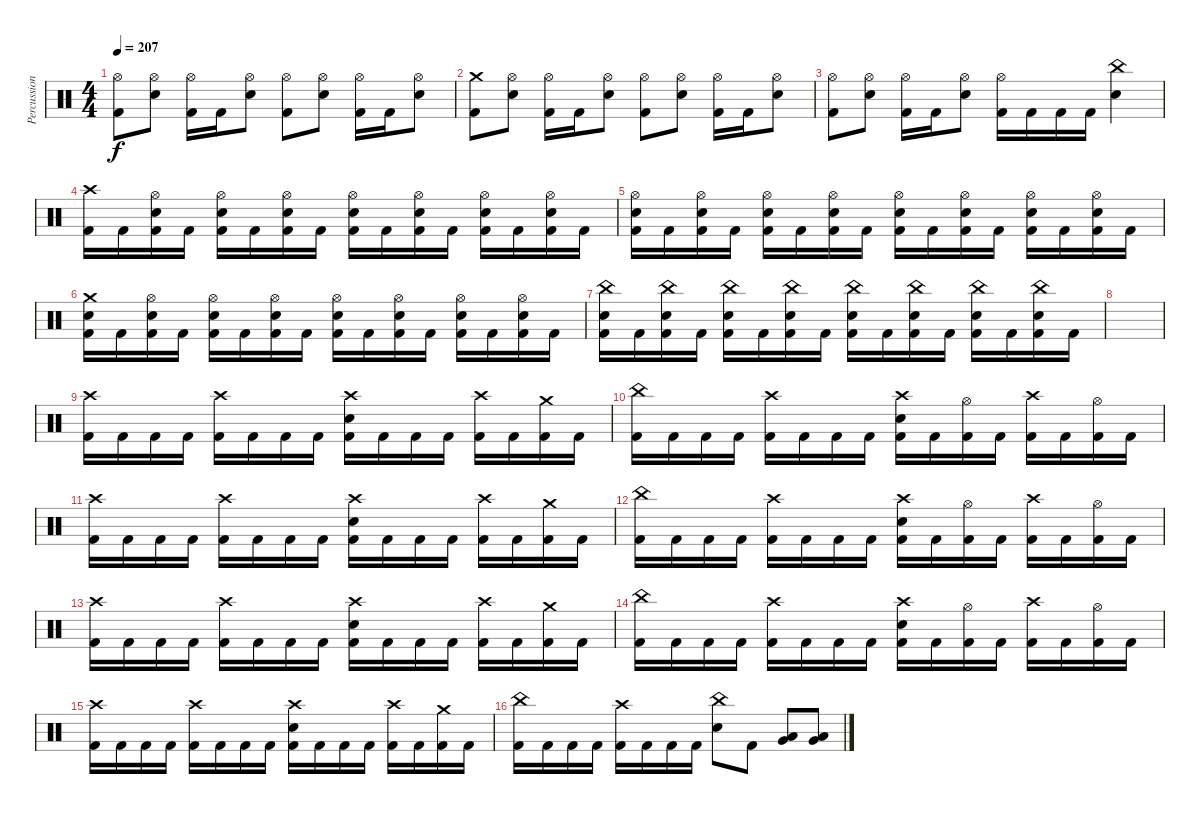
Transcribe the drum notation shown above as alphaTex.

\track ("Percussion" "Percussion") {instrument percussion}
\staff {score}
\articulation defaults
\ts (4 4)
\tempo 207
\clef neutral
\ks c
("Hi-Hat (open)" "Kick (hit) 2").8{dy f} ("Hi-Hat (open)" "Electric Snare (hit)").8 ("Hi-Hat (open)" "Kick (hit) 2").16 "Kick (hit) 2".16 ("Hi-Hat (open)" "Electric Snare (hit)").8 ("Hi-Hat (open)" "Kick (hit) 2").8 ("Hi-Hat (open)" "Electric Snare (hit)").8 ("Hi-Hat (open)" "Kick (hit) 2").16 "Kick (hit) 2".16 ("Hi-Hat (open)" "Electric Snare (hit)").8 |
("Crash medium (hit)" "Kick (hit) 2").8 ("Hi-Hat (open)" "Electric Snare (hit)").8 ("Hi-Hat (open)" "Kick (hit) 2").16 "Kick (hit) 2".16 ("Hi-Hat (open)" "Electric Snare (hit)").8 ("Hi-Hat (open)" "Kick (hit) 2").8 ("Hi-Hat (open)" "Electric Snare (hit)").8 ("Hi-Hat (open)" "Kick (hit) 2").16 "Kick (hit) 2".16 ("Hi-Hat (open)" "Electric Snare (hit)").8 |
("Hi-Hat (open)" "Kick (hit) 2").8 ("Hi-Hat (open)" "Electric Snare (hit)").8 ("Hi-Hat (open)" "Kick (hit) 2").16 "Kick (hit) 2".16 ("Hi-Hat (open)" "Electric Snare (hit)").8 ("Hi-Hat (open)" "Kick (hit) 2").16 "Kick (hit) 2".16 "Kick (hit) 2".16 "Kick (hit) 2".16 ("China (hit)" "Electric Snare (hit)").4 |
("Crash high (hit)" "Kick (hit) 2").16 "Kick (hit) 2".16 ("Hi-Hat (open)" "Electric Snare (hit)" "Kick (hit) 2").16 "Kick (hit) 2".16 ("Hi-Hat (open)" "Electric Snare (hit)" "Kick (hit) 2").16 "Kick (hit) 2".16 ("Hi-Hat (open)" "Electric Snare (hit)" "Kick (hit) 2").16 "Kick (hit) 2".16 ("Hi-Hat (open)" "Electric Snare (hit)" "Kick (hit) 2").16 "Kick (hit) 2".16 ("Hi-Hat (open)" "Electric Snare (hit)" "Kick (hit) 2").16 "Kick (hit) 2".16 ("Hi-Hat (open)" "Electric Snare (hit)" "Kick (hit) 2").16 "Kick (hit) 2".16 ("Hi-Hat (open)" "Electric Snare (hit)" "Kick (hit) 2").16 "Kick (hit) 2".16 |
("Hi-Hat (open)" "Electric Snare (hit)" "Kick (hit) 2").16 "Kick (hit) 2".16 ("Hi-Hat (open)" "Electric Snare (hit)" "Kick (hit) 2").16 "Kick (hit) 2".16 ("Hi-Hat (open)" "Electric Snare (hit)" "Kick (hit) 2").16 "Kick (hit) 2".16 ("Hi-Hat (open)" "Electric Snare (hit)" "Kick (hit) 2").16 "Kick (hit) 2".16 ("Hi-Hat (open)" "Electric Snare (hit)" "Kick (hit) 2").16 "Kick (hit) 2".16 ("Hi-Hat (open)" "Electric Snare (hit)" "Kick (hit) 2").16 "Kick (hit) 2".16 ("Hi-Hat (open)" "Electric Snare (hit)" "Kick (hit) 2").16 "Kick (hit) 2".16 ("Hi-Hat (open)" "Electric Snare (hit)" "Kick (hit) 2").16 "Kick (hit) 2".16 |
("Crash medium (hit)" "Electric Snare (hit)" "Kick (hit) 2").16 "Kick (hit) 2".16 ("Hi-Hat (open)" "Electric Snare (hit)" "Kick (hit) 2").16 "Kick (hit) 2".16 ("Hi-Hat (open)" "Electric Snare (hit)" "Kick (hit) 2").16 "Kick (hit) 2".16 ("Hi-Hat (open)" "Electric Snare (hit)" "Kick (hit) 2").16 "Kick (hit) 2".16 ("Hi-Hat (open)" "Electric Snare (hit)" "Kick (hit) 2").16 "Kick (hit) 2".16 ("Hi-Hat (open)" "Electric Snare (hit)" "Kick (hit) 2").16 "Kick (hit) 2".16 ("Hi-Hat (open)" "Electric Snare (hit)" "Kick (hit) 2").16 "Kick (hit) 2".16 ("Hi-Hat (open)" "Electric Snare (hit)" "Kick (hit) 2").16 "Kick (hit) 2".16 |
("China (hit)" "Electric Snare (hit)" "Kick (hit) 2").16 "Kick (hit) 2".16 ("China (hit)" "Electric Snare (hit)" "Kick (hit) 2").16 "Kick (hit) 2".16 ("China (hit)" "Electric Snare (hit)" "Kick (hit) 2").16 "Kick (hit) 2".16 ("China (hit)" "Electric Snare (hit)" "Kick (hit) 2").16 "Kick (hit) 2".16 ("China (hit)" "Electric Snare (hit)" "Kick (hit) 2").16 "Kick (hit) 2".16 ("China (hit)" "Electric Snare (hit)" "Kick (hit) 2").16 "Kick (hit) 2".16 ("China (hit)" "Electric Snare (hit)" "Kick (hit) 2").16 "Kick (hit) 2".16 ("China (hit)" "Electric Snare (hit)" "Kick (hit) 2").16 "Kick (hit) 2".16 |
|
("Crash high (hit)" "Kick (hit) 2").16 "Kick (hit) 2".16 "Kick (hit) 2".16 "Kick (hit) 2".16 ("Crash high (hit)" "Kick (hit) 2").16 "Kick (hit) 2".16 "Kick (hit) 2".16 "Kick (hit) 2".16 ("Crash high (hit)" "Electric Snare (hit)" "Kick (hit) 2").16 "Kick (hit) 2".16 "Kick (hit) 2".16 "Kick (hit) 2".16 ("Crash high (hit)" "Kick (hit) 2").16 "Kick (hit) 2".16 ("Crash medium (hit)" "Kick (hit) 2").16 "Kick (hit) 2".16 |
("China (hit)" "Kick (hit) 2").16 "Kick (hit) 2".16 "Kick (hit) 2".16 "Kick (hit) 2".16 ("Crash high (hit)" "Kick (hit) 2").16 "Kick (hit) 2".16 "Kick (hit) 2".16 "Kick (hit) 2".16 ("Crash high (hit)" "Electric Snare (hit)" "Kick (hit) 2").16 "Kick (hit) 2".16 ("Hi-Hat (open)" "Kick (hit) 2").16 "Kick (hit) 2".16 ("Crash high (hit)" "Kick (hit) 2").16 "Kick (hit) 2".16 ("Hi-Hat (open)" "Kick (hit) 2").16 "Kick (hit) 2".16 |
("Crash high (hit)" "Kick (hit) 2").16 "Kick (hit) 2".16 "Kick (hit) 2".16 "Kick (hit) 2".16 ("Crash high (hit)" "Kick (hit) 2").16 "Kick (hit) 2".16 "Kick (hit) 2".16 "Kick (hit) 2".16 ("Crash high (hit)" "Electric Snare (hit)" "Kick (hit) 2").16 "Kick (hit) 2".16 "Kick (hit) 2".16 "Kick (hit) 2".16 ("Crash high (hit)" "Kick (hit) 2").16 "Kick (hit) 2".16 ("Crash medium (hit)" "Kick (hit) 2").16 "Kick (hit) 2".16 |
("China (hit)" "Kick (hit) 2").16 "Kick (hit) 2".16 "Kick (hit) 2".16 "Kick (hit) 2".16 ("Crash high (hit)" "Kick (hit) 2").16 "Kick (hit) 2".16 "Kick (hit) 2".16 "Kick (hit) 2".16 ("Crash high (hit)" "Electric Snare (hit)" "Kick (hit) 2").16 "Kick (hit) 2".16 ("Hi-Hat (open)" "Kick (hit) 2").16 "Kick (hit) 2".16 ("Crash high (hit)" "Kick (hit) 2").16 "Kick (hit) 2".16 ("Hi-Hat (open)" "Kick (hit) 2").16 "Kick (hit) 2".16 |
("Crash high (hit)" "Kick (hit) 2").16 "Kick (hit) 2".16 "Kick (hit) 2".16 "Kick (hit) 2".16 ("Crash high (hit)" "Kick (hit) 2").16 "Kick (hit) 2".16 "Kick (hit) 2".16 "Kick (hit) 2".16 ("Crash high (hit)" "Electric Snare (hit)" "Kick (hit) 2").16 "Kick (hit) 2".16 "Kick (hit) 2".16 "Kick (hit) 2".16 ("Crash high (hit)" "Kick (hit) 2").16 "Kick (hit) 2".16 ("Crash medium (hit)" "Kick (hit) 2").16 "Kick (hit) 2".16 |
("China (hit)" "Kick (hit) 2").16 "Kick (hit) 2".16 "Kick (hit) 2".16 "Kick (hit) 2".16 ("Crash high (hit)" "Kick (hit) 2").16 "Kick (hit) 2".16 "Kick (hit) 2".16 "Kick (hit) 2".16 ("Crash high (hit)" "Electric Snare (hit)" "Kick (hit) 2").16 "Kick (hit) 2".16 ("Hi-Hat (open)" "Kick (hit) 2").16 "Kick (hit) 2".16 ("Crash high (hit)" "Kick (hit) 2").16 "Kick (hit) 2".16 ("Hi-Hat (open)" "Kick (hit) 2").16 "Kick (hit) 2".16 |
("Crash high (hit)" "Kick (hit) 2").16 "Kick (hit) 2".16 "Kick (hit) 2".16 "Kick (hit) 2".16 ("Crash high (hit)" "Kick (hit) 2").16 "Kick (hit) 2".16 "Kick (hit) 2".16 "Kick (hit) 2".16 ("Crash high (hit)" "Electric Snare (hit)" "Kick (hit) 2").16 "Kick (hit) 2".16 "Kick (hit) 2".16 "Kick (hit) 2".16 ("Crash high (hit)" "Kick (hit) 2").16 "Kick (hit) 2".16 ("Crash medium (hit)" "Kick (hit) 2").16 "Kick (hit) 2".16 |
("China (hit)" "Kick (hit) 2").16 "Kick (hit) 2".16 "Kick (hit) 2".16 "Kick (hit) 2".16 ("Crash high (hit)" "Kick (hit) 2").16 "Kick (hit) 2".16 "Kick (hit) 2".16 "Kick (hit) 2".16 ("China (hit)" "Electric Snare (hit)").8 "Kick (hit) 2".8 ("Low Tom (hit)" "Very Low Tom (hit)").8 ("Low Tom (hit)" "Very Low Tom (hit)").8
